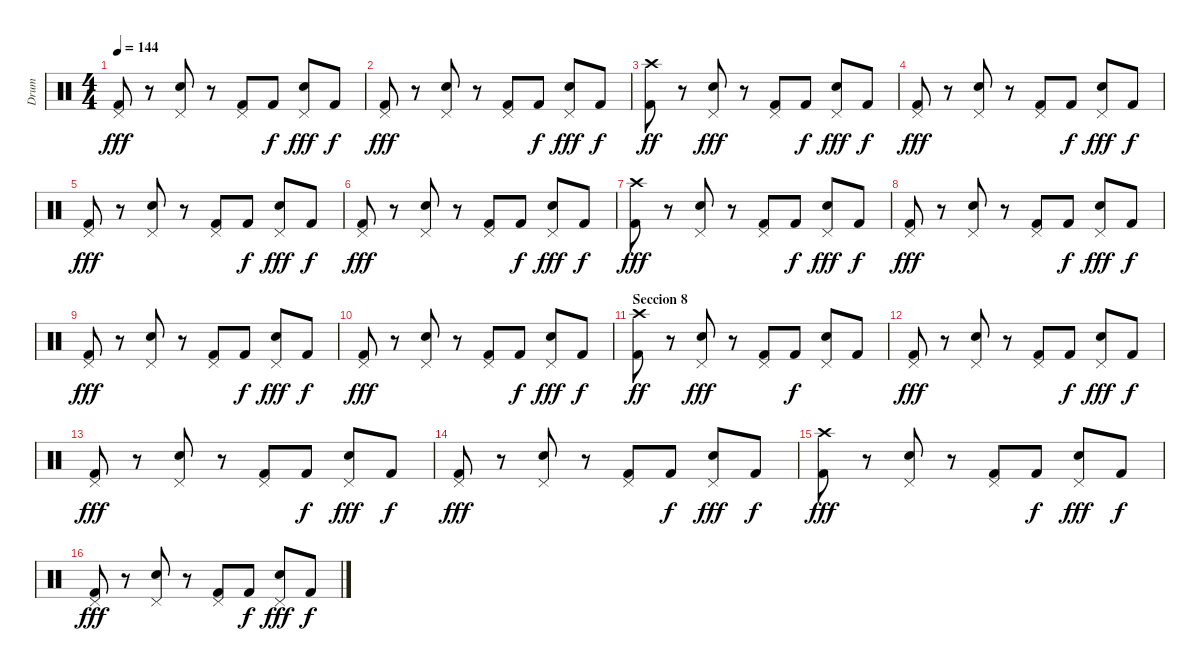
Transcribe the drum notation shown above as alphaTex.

\track ("Drum" "Drum") {instrument percussion}
\staff {score}
\articulation defaults
\ts (4 4)
\tempo 144
\clef neutral
\ks c
("Pedal Hi-Hat (hit)" "Kick (hit) 2").8{dy fff} r.8 ("Pedal Hi-Hat (hit)" "Electric Snare (hit)").8 r.8 ("Pedal Hi-Hat (hit)" "Kick (hit) 2").8 "Kick (hit) 2".8{dy f} ("Pedal Hi-Hat (hit)" "Electric Snare (hit)").8{dy fff} "Kick (hit) 2".8{dy f} |
("Pedal Hi-Hat (hit)" "Kick (hit) 2").8{dy fff} r.8 ("Pedal Hi-Hat (hit)" "Electric Snare (hit)").8 r.8 ("Pedal Hi-Hat (hit)" "Kick (hit) 2").8 "Kick (hit) 2".8{dy f} ("Pedal Hi-Hat (hit)" "Electric Snare (hit)").8{dy fff} "Kick (hit) 2".8{dy f} |
("Crash high (hit)" "Kick (hit) 2").8{dy ff} r.8 ("Pedal Hi-Hat (hit)" "Electric Snare (hit)").8{dy fff} r.8 ("Pedal Hi-Hat (hit)" "Kick (hit) 2").8 "Kick (hit) 2".8{dy f} ("Pedal Hi-Hat (hit)" "Electric Snare (hit)").8{dy fff} "Kick (hit) 2".8{dy f} |
("Pedal Hi-Hat (hit)" "Kick (hit) 2").8{dy fff} r.8 ("Pedal Hi-Hat (hit)" "Electric Snare (hit)").8 r.8 ("Pedal Hi-Hat (hit)" "Kick (hit) 2").8 "Kick (hit) 2".8{dy f} ("Pedal Hi-Hat (hit)" "Electric Snare (hit)").8{dy fff} "Kick (hit) 2".8{dy f} |
("Pedal Hi-Hat (hit)" "Kick (hit) 2").8{dy fff} r.8 ("Pedal Hi-Hat (hit)" "Electric Snare (hit)").8 r.8 ("Pedal Hi-Hat (hit)" "Kick (hit) 2").8 "Kick (hit) 2".8{dy f} ("Pedal Hi-Hat (hit)" "Electric Snare (hit)").8{dy fff} "Kick (hit) 2".8{dy f} |
("Pedal Hi-Hat (hit)" "Kick (hit) 2").8{dy fff} r.8 ("Pedal Hi-Hat (hit)" "Electric Snare (hit)").8 r.8 ("Pedal Hi-Hat (hit)" "Kick (hit) 2").8 "Kick (hit) 2".8{dy f} ("Pedal Hi-Hat (hit)" "Electric Snare (hit)").8{dy fff} "Kick (hit) 2".8{dy f} |
("Crash high (hit)" "Kick (hit) 2").8{dy fff} r.8 ("Pedal Hi-Hat (hit)" "Electric Snare (hit)").8 r.8 ("Pedal Hi-Hat (hit)" "Kick (hit) 2").8 "Kick (hit) 2".8{dy f} ("Pedal Hi-Hat (hit)" "Electric Snare (hit)").8{dy fff} "Kick (hit) 2".8{dy f} |
("Pedal Hi-Hat (hit)" "Kick (hit) 2").8{dy fff} r.8 ("Pedal Hi-Hat (hit)" "Electric Snare (hit)").8 r.8 ("Pedal Hi-Hat (hit)" "Kick (hit) 2").8 "Kick (hit) 2".8{dy f} ("Pedal Hi-Hat (hit)" "Electric Snare (hit)").8{dy fff} "Kick (hit) 2".8{dy f} |
("Pedal Hi-Hat (hit)" "Kick (hit) 2").8{dy fff} r.8 ("Pedal Hi-Hat (hit)" "Electric Snare (hit)").8 r.8 ("Pedal Hi-Hat (hit)" "Kick (hit) 2").8 "Kick (hit) 2".8{dy f} ("Pedal Hi-Hat (hit)" "Electric Snare (hit)").8{dy fff} "Kick (hit) 2".8{dy f} |
("Pedal Hi-Hat (hit)" "Kick (hit) 2").8{dy fff} r.8 ("Pedal Hi-Hat (hit)" "Electric Snare (hit)").8 r.8 ("Pedal Hi-Hat (hit)" "Kick (hit) 2").8 "Kick (hit) 2".8{dy f} ("Pedal Hi-Hat (hit)" "Electric Snare (hit)").8{dy fff} "Kick (hit) 2".8{dy f} |
\section ("" "Seccion 8")
("Crash high (hit)" "Kick (hit) 2").8{dy ff} r.8 ("Pedal Hi-Hat (hit)" "Electric Snare (hit)").8{dy fff} r.8 ("Pedal Hi-Hat (hit)" "Kick (hit) 2").8 "Kick (hit) 2".8{dy f} ("Pedal Hi-Hat (hit)" "Electric Snare (hit)").8 "Kick (hit) 2".8 |
("Pedal Hi-Hat (hit)" "Kick (hit) 2").8{dy fff} r.8 ("Pedal Hi-Hat (hit)" "Electric Snare (hit)").8 r.8 ("Pedal Hi-Hat (hit)" "Kick (hit) 2").8 "Kick (hit) 2".8{dy f} ("Pedal Hi-Hat (hit)" "Electric Snare (hit)").8{dy fff} "Kick (hit) 2".8{dy f} |
("Pedal Hi-Hat (hit)" "Kick (hit) 2").8{dy fff} r.8 ("Pedal Hi-Hat (hit)" "Electric Snare (hit)").8 r.8 ("Pedal Hi-Hat (hit)" "Kick (hit) 2").8 "Kick (hit) 2".8{dy f} ("Pedal Hi-Hat (hit)" "Electric Snare (hit)").8{dy fff} "Kick (hit) 2".8{dy f} |
("Pedal Hi-Hat (hit)" "Kick (hit) 2").8{dy fff} r.8 ("Pedal Hi-Hat (hit)" "Electric Snare (hit)").8 r.8 ("Pedal Hi-Hat (hit)" "Kick (hit) 2").8 "Kick (hit) 2".8{dy f} ("Pedal Hi-Hat (hit)" "Electric Snare (hit)").8{dy fff} "Kick (hit) 2".8{dy f} |
("Crash high (hit)" "Kick (hit) 2").8{dy fff} r.8 ("Pedal Hi-Hat (hit)" "Electric Snare (hit)").8 r.8 ("Pedal Hi-Hat (hit)" "Kick (hit) 2").8 "Kick (hit) 2".8{dy f} ("Pedal Hi-Hat (hit)" "Electric Snare (hit)").8{dy fff} "Kick (hit) 2".8{dy f} |
("Pedal Hi-Hat (hit)" "Kick (hit) 2").8{dy fff} r.8 ("Pedal Hi-Hat (hit)" "Electric Snare (hit)").8 r.8 ("Pedal Hi-Hat (hit)" "Kick (hit) 2").8 "Kick (hit) 2".8{dy f} ("Pedal Hi-Hat (hit)" "Electric Snare (hit)").8{dy fff} "Kick (hit) 2".8{dy f}
